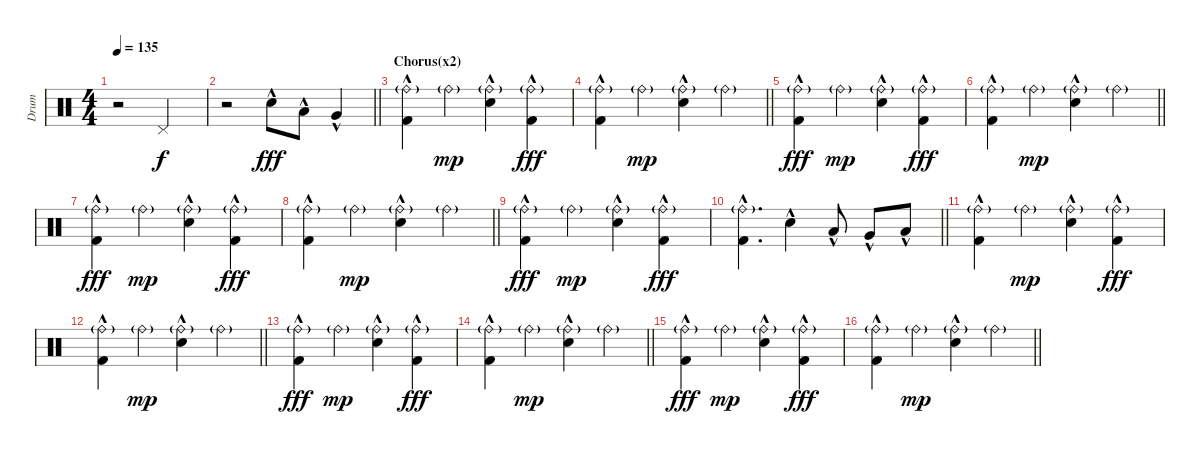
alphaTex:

\track ("Drum" "Drum") {instrument percussion}
\staff {score}
\articulation defaults
\ts (4 4)
\tempo 135
\clef neutral
\ks c
r.2{dy f} "Pedal Hi-Hat (hit)".2 |
\barLineRight lightlight
r.2 "Electric Snare (hit)"{hac}.8{dy fff} "Low Tom (hit)"{hac}.8 "Very Low Tom (hit)"{hac}.4 |
\section ("" "Chorus(x2)")
("Ride (bell)"{g} "Kick (hit) 2"{hac}).4 "Ride (bell)"{g}.4{dy mp} ("Electric Snare (hit)"{hac} "Ride (bell)"{g}).4 ("Ride (bell)"{g} "Kick (hit) 2"{hac}).4{dy fff} |
\barLineRight lightlight
("Ride (bell)"{g} "Kick (hit) 2"{hac}).4 "Ride (bell)"{g}.4{dy mp} ("Electric Snare (hit)"{hac} "Ride (bell)"{g}).4 "Ride (bell)"{g}.4 |
("Ride (bell)"{g} "Kick (hit) 2"{hac}).4{dy fff} "Ride (bell)"{g}.4{dy mp} ("Electric Snare (hit)"{hac} "Ride (bell)"{g}).4 ("Ride (bell)"{g} "Kick (hit) 2"{hac}).4{dy fff} |
\barLineRight lightlight
("Ride (bell)"{g} "Kick (hit) 2"{hac}).4 "Ride (bell)"{g}.4{dy mp} ("Electric Snare (hit)"{hac} "Ride (bell)"{g}).4 "Ride (bell)"{g}.4 |
("Ride (bell)"{g} "Kick (hit) 2"{hac}).4{dy fff} "Ride (bell)"{g}.4{dy mp} ("Electric Snare (hit)"{hac} "Ride (bell)"{g}).4 ("Ride (bell)"{g} "Kick (hit) 2"{hac}).4{dy fff} |
\barLineRight lightlight
("Ride (bell)"{g} "Kick (hit) 2"{hac}).4 "Ride (bell)"{g}.4{dy mp} ("Electric Snare (hit)"{hac} "Ride (bell)"{g}).4 "Ride (bell)"{g}.4 |
("Ride (bell)"{g} "Kick (hit) 2"{hac}).4{dy fff} "Ride (bell)"{g}.4{dy mp} ("Electric Snare (hit)"{hac} "Ride (bell)"{g}).4 ("Ride (bell)"{g} "Kick (hit) 2"{hac}).4{dy fff} |
\barLineRight lightlight
("Ride (bell)"{g} "Kick (hit) 2"{hac}).4{d} "Electric Snare (hit)"{hac}.4 "Low Tom (hit)"{hac}.8 "Very Low Tom (hit)"{hac}.8 "Low Floor Tom (hit)"{hac}.8 |
("Ride (bell)"{g} "Kick (hit) 2"{hac}).4 "Ride (bell)"{g}.4{dy mp} ("Electric Snare (hit)"{hac} "Ride (bell)"{g}).4 ("Ride (bell)"{g} "Kick (hit) 2"{hac}).4{dy fff} |
\barLineRight lightlight
("Ride (bell)"{g} "Kick (hit) 2"{hac}).4 "Ride (bell)"{g}.4{dy mp} ("Electric Snare (hit)"{hac} "Ride (bell)"{g}).4 "Ride (bell)"{g}.4 |
("Ride (bell)"{g} "Kick (hit) 2"{hac}).4{dy fff} "Ride (bell)"{g}.4{dy mp} ("Electric Snare (hit)"{hac} "Ride (bell)"{g}).4 ("Ride (bell)"{g} "Kick (hit) 2"{hac}).4{dy fff} |
\barLineRight lightlight
("Ride (bell)"{g} "Kick (hit) 2"{hac}).4 "Ride (bell)"{g}.4{dy mp} ("Electric Snare (hit)"{hac} "Ride (bell)"{g}).4 "Ride (bell)"{g}.4 |
("Ride (bell)"{g} "Kick (hit) 2"{hac}).4{dy fff} "Ride (bell)"{g}.4{dy mp} ("Electric Snare (hit)"{hac} "Ride (bell)"{g}).4 ("Ride (bell)"{g} "Kick (hit) 2"{hac}).4{dy fff} |
\barLineRight lightlight
("Ride (bell)"{g} "Kick (hit) 2"{hac}).4 "Ride (bell)"{g}.4{dy mp} ("Electric Snare (hit)"{hac} "Ride (bell)"{g}).4 "Ride (bell)"{g}.4
